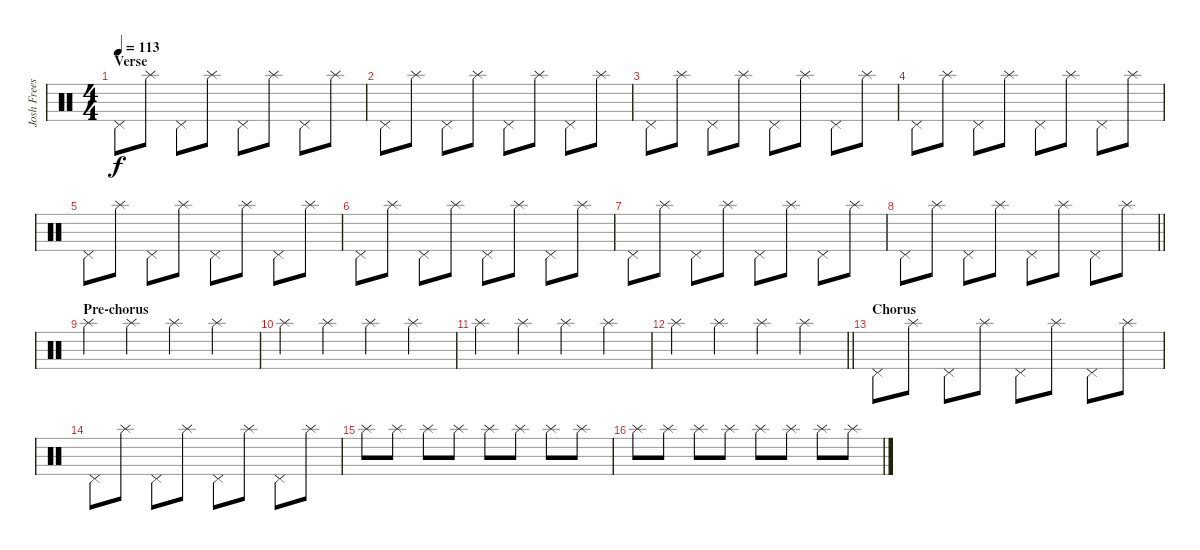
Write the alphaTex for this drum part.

\track ("Josh Freese (Studio Drummer)" "Josh Frees") {instrument percussion}
\staff {score}
\articulation defaults
\ts (4 4)
\section ("" "Verse")
\tempo 113
\clef neutral
\ks c "Pedal Hi-Hat (hit)".8{dy f} "Splash (hit)".8 "Pedal Hi-Hat (hit)".8 "Splash (hit)".8 "Pedal Hi-Hat (hit)".8 "Splash (hit)".8 "Pedal Hi-Hat (hit)".8 "Splash (hit)".8
|
"Pedal Hi-Hat (hit)".8 "Splash (hit)".8 "Pedal Hi-Hat (hit)".8 "Splash (hit)".8 "Pedal Hi-Hat (hit)".8 "Splash (hit)".8 "Pedal Hi-Hat (hit)".8 "Splash (hit)".8 |
"Pedal Hi-Hat (hit)".8 "Splash (hit)".8 "Pedal Hi-Hat (hit)".8 "Splash (hit)".8 "Pedal Hi-Hat (hit)".8 "Splash (hit)".8 "Pedal Hi-Hat (hit)".8 "Splash (hit)".8 |
"Pedal Hi-Hat (hit)".8 "Splash (hit)".8 "Pedal Hi-Hat (hit)".8 "Splash (hit)".8 "Pedal Hi-Hat (hit)".8 "Splash (hit)".8 "Pedal Hi-Hat (hit)".8 "Splash (hit)".8 |
"Pedal Hi-Hat (hit)".8 "Splash (hit)".8 "Pedal Hi-Hat (hit)".8 "Splash (hit)".8 "Pedal Hi-Hat (hit)".8 "Splash (hit)".8 "Pedal Hi-Hat (hit)".8 "Splash (hit)".8 |
"Pedal Hi-Hat (hit)".8 "Splash (hit)".8 "Pedal Hi-Hat (hit)".8 "Splash (hit)".8 "Pedal Hi-Hat (hit)".8 "Splash (hit)".8 "Pedal Hi-Hat (hit)".8 "Splash (hit)".8 |
"Pedal Hi-Hat (hit)".8 "Splash (hit)".8 "Pedal Hi-Hat (hit)".8 "Splash (hit)".8 "Pedal Hi-Hat (hit)".8 "Splash (hit)".8 "Pedal Hi-Hat (hit)".8 "Splash (hit)".8 |
\barLineRight lightlight "Pedal Hi-Hat (hit)".8 "Splash (hit)".8 "Pedal Hi-Hat (hit)".8 "Splash (hit)".8 "Pedal Hi-Hat (hit)".8 "Splash (hit)".8 "Pedal Hi-Hat (hit)".8 "Splash (hit)".8
|
\section ("" "Pre-chorus")
"Splash (hit)".4 "Splash (hit)".4 "Splash (hit)".4 "Splash (hit)".4 |
"Splash (hit)".4 "Splash (hit)".4 "Splash (hit)".4 "Splash (hit)".4 |
"Splash (hit)".4 "Splash (hit)".4 "Splash (hit)".4 "Splash (hit)".4 |
\barLineRight lightlight "Splash (hit)".4 "Splash (hit)".4 "Splash (hit)".4 "Splash (hit)".4
|
\section ("" "Chorus")
"Pedal Hi-Hat (hit)".8 "Splash (hit)".8 "Pedal Hi-Hat (hit)".8 "Splash (hit)".8 "Pedal Hi-Hat (hit)".8 "Splash (hit)".8 "Pedal Hi-Hat (hit)".8 "Splash (hit)".8 |
"Pedal Hi-Hat (hit)".8 "Splash (hit)".8 "Pedal Hi-Hat (hit)".8 "Splash (hit)".8 "Pedal Hi-Hat (hit)".8 "Splash (hit)".8 "Pedal Hi-Hat (hit)".8 "Splash (hit)".8 |
"Splash (hit)".8 "Splash (hit)".8 "Splash (hit)".8 "Splash (hit)".8 "Splash (hit)".8 "Splash (hit)".8 "Splash (hit)".8 "Splash (hit)".8 |
"Splash (hit)".8 "Splash (hit)".8 "Splash (hit)".8 "Splash (hit)".8 "Splash (hit)".8 "Splash (hit)".8 "Splash (hit)".8 "Splash (hit)".8
